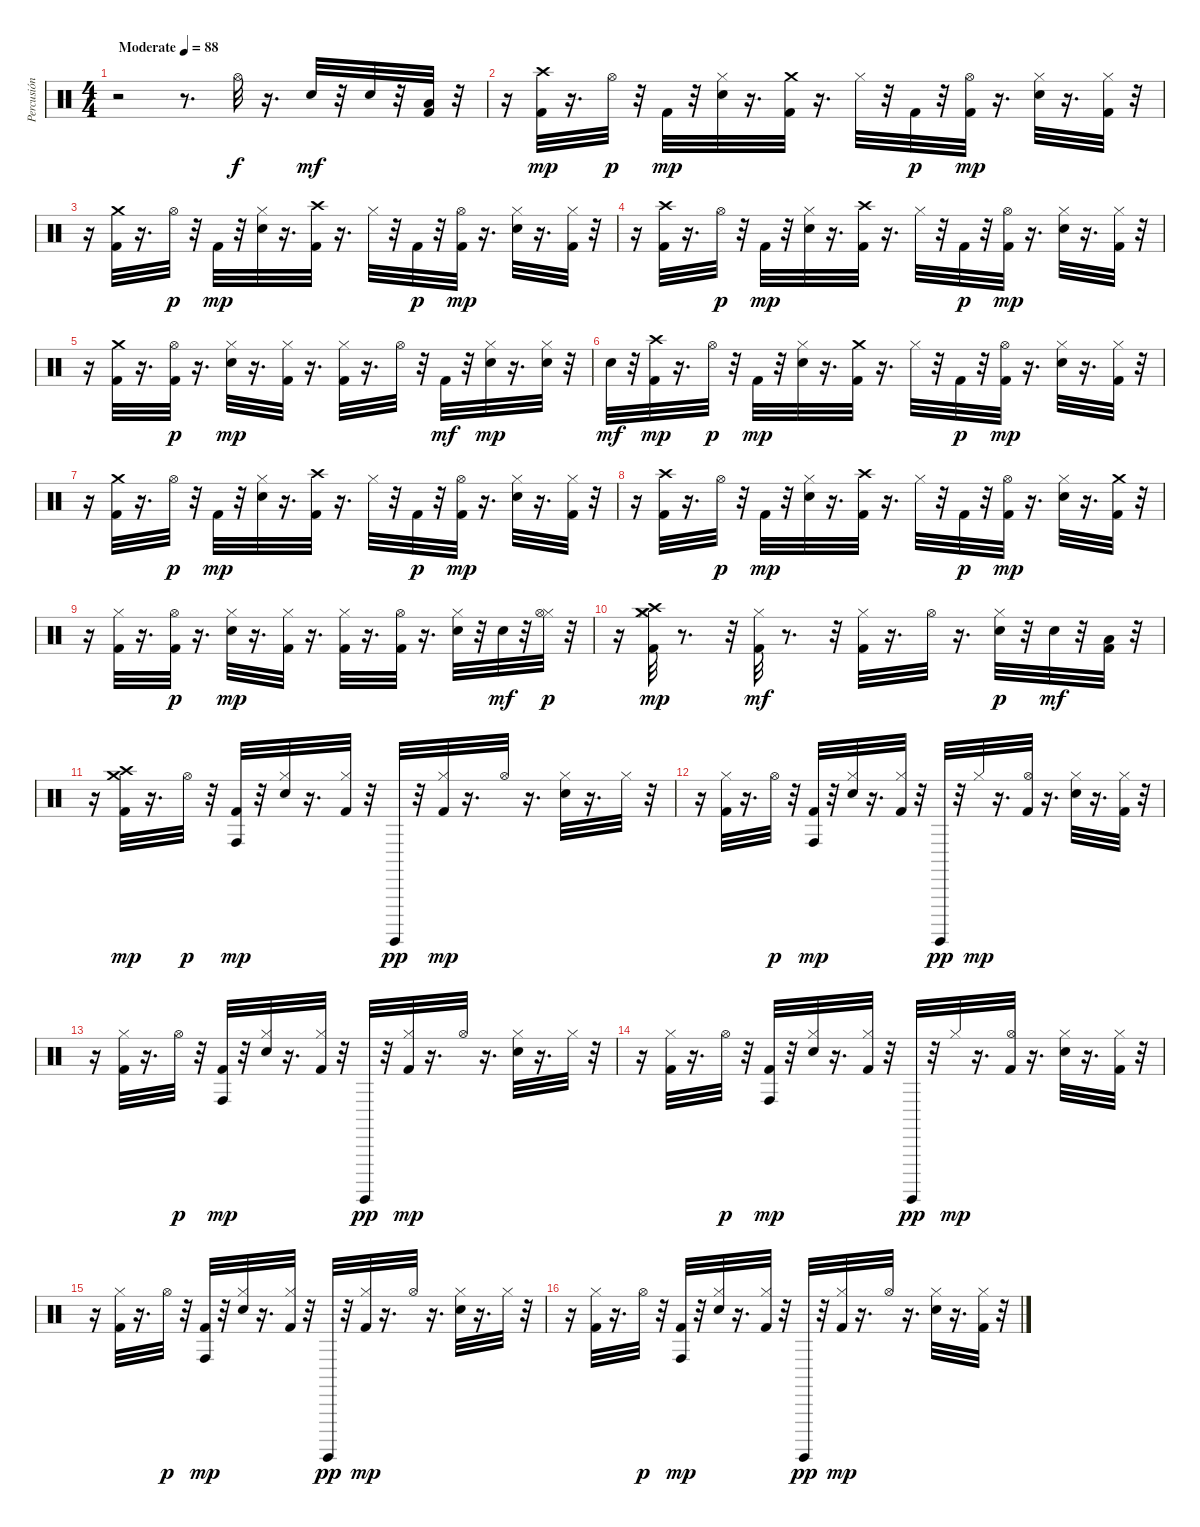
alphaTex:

\track ("Percusión" "Percusión") {instrument percussion}
\staff {score}
\articulation defaults
\ts (4 4)
\tempo (88 "Moderate")
\clef neutral
\ks c
r.2{dy f} r.8{d} "Hi-Hat (open)".32 r.16{d} "Electric Snare (hit)".32{dy mf} r.32 "Electric Snare (hit)".32 r.32 ("Low Tom (hit)" "Kick (hit) 2").32 r.32 |
r.16 ("Kick (hit) 2" "Crash high (hit)").32{dy mp} r.16{d} "Hi-Hat (open)".32{dy p} r.32 "Kick (hit) 2".32{dy mp} r.32 ("Electric Snare (hit)" "Hi-Hat (closed)").32 r.16{d} ("Kick (hit) 2" "Crash medium (hit)").32 r.16{d} "Hi-Hat (closed)".32 r.32 "Kick (hit) 2".32{dy p} r.32 ("Kick (hit) 2" "Hi-Hat (open)").32{dy mp} r.16{d} ("Electric Snare (hit)" "Hi-Hat (closed)").32 r.16{d} ("Kick (hit) 2" "Hi-Hat (closed)").32 r.32 |
r.16 ("Kick (hit) 2" "Crash medium (hit)").32 r.16{d} "Hi-Hat (open)".32{dy p} r.32 "Kick (hit) 2".32{dy mp} r.32 ("Electric Snare (hit)" "Hi-Hat (closed)").32 r.16{d} ("Kick (hit) 2" "Crash high (hit)").32 r.16{d} "Hi-Hat (closed)".32 r.32 "Kick (hit) 2".32{dy p} r.32 ("Kick (hit) 2" "Hi-Hat (open)").32{dy mp} r.16{d} ("Electric Snare (hit)" "Hi-Hat (closed)").32 r.16{d} ("Kick (hit) 2" "Hi-Hat (closed)").32 r.32 |
r.16 ("Kick (hit) 2" "Crash high (hit)").32 r.16{d} "Hi-Hat (open)".32{dy p} r.32 "Kick (hit) 2".32{dy mp} r.32 ("Electric Snare (hit)" "Hi-Hat (closed)").32 r.16{d} ("Kick (hit) 2" "Crash high (hit)").32 r.16{d} "Hi-Hat (closed)".32 r.32 "Kick (hit) 2".32{dy p} r.32 ("Kick (hit) 2" "Hi-Hat (open)").32{dy mp} r.16{d} ("Electric Snare (hit)" "Hi-Hat (closed)").32 r.16{d} ("Kick (hit) 2" "Hi-Hat (closed)").32 r.32 |
r.16 ("Kick (hit) 2" "Crash medium (hit)").32 r.16{d} ("Kick (hit) 2" "Hi-Hat (open)").32{dy p} r.16{d} ("Electric Snare (hit)" "Hi-Hat (closed)").32{dy mp} r.16{d} ("Kick (hit) 2" "Hi-Hat (closed)").32 r.16{d} ("Kick (hit) 2" "Hi-Hat (closed)").32 r.16{d} "Hi-Hat (open)".32 r.32 "Kick (hit) 2".32{dy mf} r.32 ("Electric Snare (hit)" "Hi-Hat (closed)").32{dy mp} r.16{d} ("Electric Snare (hit)" "Hi-Hat (closed)").32 r.32 |
"Electric Snare (hit)".32{dy mf} r.32 ("Kick (hit) 2" "Crash high (hit)").32{dy mp} r.16{d} "Hi-Hat (open)".32{dy p} r.32 "Kick (hit) 2".32{dy mp} r.32 ("Electric Snare (hit)" "Hi-Hat (closed)").32 r.16{d} ("Kick (hit) 2" "Crash medium (hit)").32 r.16{d} "Hi-Hat (closed)".32 r.32 "Kick (hit) 2".32{dy p} r.32 ("Kick (hit) 2" "Hi-Hat (open)").32{dy mp} r.16{d} ("Electric Snare (hit)" "Hi-Hat (closed)").32 r.16{d} ("Kick (hit) 2" "Hi-Hat (closed)").32 r.32 |
r.16 ("Kick (hit) 2" "Crash medium (hit)").32 r.16{d} "Hi-Hat (open)".32{dy p} r.32 "Kick (hit) 2".32{dy mp} r.32 ("Electric Snare (hit)" "Hi-Hat (closed)").32 r.16{d} ("Kick (hit) 2" "Crash high (hit)").32 r.16{d} "Hi-Hat (closed)".32 r.32 "Kick (hit) 2".32{dy p} r.32 ("Kick (hit) 2" "Hi-Hat (open)").32{dy mp} r.16{d} ("Electric Snare (hit)" "Hi-Hat (closed)").32 r.16{d} ("Kick (hit) 2" "Hi-Hat (closed)").32 r.32 |
r.16 ("Kick (hit) 2" "Crash high (hit)").32 r.16{d} "Hi-Hat (open)".32{dy p} r.32 "Kick (hit) 2".32{dy mp} r.32 ("Electric Snare (hit)" "Hi-Hat (closed)").32 r.16{d} ("Kick (hit) 2" "Crash high (hit)").32 r.16{d} "Hi-Hat (closed)".32 r.32 "Kick (hit) 2".32{dy p} r.32 ("Kick (hit) 2" "Hi-Hat (open)").32{dy mp} r.16{d} ("Electric Snare (hit)" "Hi-Hat (closed)").32 r.16{d} ("Kick (hit) 2" "Crash medium (hit)").32 r.32 |
r.16 ("Kick (hit) 2" "Hi-Hat (closed)").32 r.16{d} ("Kick (hit) 2" "Hi-Hat (open)").32{dy p} r.16{d} ("Electric Snare (hit)" "Hi-Hat (closed)").32{dy mp} r.16{d} ("Kick (hit) 2" "Hi-Hat (closed)").32 r.16{d} ("Kick (hit) 2" "Hi-Hat (closed)").32 r.16{d} ("Kick (hit) 2" "Hi-Hat (open)").32 r.16{d} ("Electric Snare (hit)" "Hi-Hat (closed)").32 r.32 "Electric Snare (hit)".32{dy mf} r.32 ("Hi-Hat (closed)" "Hi-Hat (open)").32{dy p} r.32 |
r.16 ("Kick (hit) 2" "Crash medium (hit)" "Crash high (hit)" "Hi-Hat (closed)").32{dy mp} r.8{d} r.32 ("Kick (hit) 2" "Hi-Hat (closed)").32{dy mf} r.8{d} r.32 ("Kick (hit) 2" "Hi-Hat (closed)").32 r.16{d} "Hi-Hat (open)".32 r.16{d} ("Electric Snare (hit)" "Hi-Hat (closed)").32{dy p} r.32 "Electric Snare (hit)".32{dy mf} r.32 ("Low Tom (hit)" "Kick (hit) 2").32 r.32 |
r.16 ("Kick (hit) 2" "Crash medium (hit)" "Crash high (hit)").32{dy mp} r.16{d} "Hi-Hat (open)".32{dy p} r.32 ("Kick (hit) 2" "Conga high (hit)").32{dy mp} r.32 ("Electric Snare (hit)" "Hi-Hat (closed)").32 r.16{d} ("Kick (hit) 2" "Hi-Hat (closed)").32 r.32 "Surdo (hit)".32{dy pp} r.32 ("Kick (hit) 2" "Hi-Hat (closed)").32{dy mp} r.16{d} "Hi-Hat (open)".32 r.16{d} ("Electric Snare (hit)" "Hi-Hat (closed)").32 r.16{d} "Hi-Hat (closed)".32 r.32 |
r.16 ("Kick (hit) 2" "Hi-Hat (closed)").32 r.16{d} "Hi-Hat (open)".32{dy p} r.32 ("Kick (hit) 2" "Conga high (hit)").32{dy mp} r.32 ("Electric Snare (hit)" "Hi-Hat (closed)").32 r.16{d} ("Kick (hit) 2" "Hi-Hat (closed)").32 r.32 "Surdo (hit)".32{dy pp} r.32 "Hi-Hat (closed)".32{dy mp} r.16{d} ("Kick (hit) 2" "Hi-Hat (open)").32 r.16{d} ("Electric Snare (hit)" "Hi-Hat (closed)").32 r.16{d} ("Kick (hit) 2" "Hi-Hat (closed)").32 r.32 |
r.16 ("Kick (hit) 2" "Hi-Hat (closed)").32 r.16{d} "Hi-Hat (open)".32{dy p} r.32 ("Kick (hit) 2" "Conga high (hit)").32{dy mp} r.32 ("Electric Snare (hit)" "Hi-Hat (closed)").32 r.16{d} ("Kick (hit) 2" "Hi-Hat (closed)").32 r.32 "Surdo (hit)".32{dy pp} r.32 ("Kick (hit) 2" "Hi-Hat (closed)").32{dy mp} r.16{d} "Hi-Hat (open)".32 r.16{d} ("Electric Snare (hit)" "Hi-Hat (closed)").32 r.16{d} "Hi-Hat (closed)".32 r.32 |
r.16 ("Kick (hit) 2" "Hi-Hat (closed)").32 r.16{d} "Hi-Hat (open)".32{dy p} r.32 ("Kick (hit) 2" "Conga high (hit)").32{dy mp} r.32 ("Electric Snare (hit)" "Hi-Hat (closed)").32 r.16{d} ("Kick (hit) 2" "Hi-Hat (closed)").32 r.32 "Surdo (hit)".32{dy pp} r.32 "Hi-Hat (closed)".32{dy mp} r.16{d} ("Kick (hit) 2" "Hi-Hat (open)").32 r.16{d} ("Electric Snare (hit)" "Hi-Hat (closed)").32 r.16{d} ("Kick (hit) 2" "Hi-Hat (closed)").32 r.32 |
r.16 ("Kick (hit) 2" "Hi-Hat (closed)").32 r.16{d} "Hi-Hat (open)".32{dy p} r.32 ("Kick (hit) 2" "Conga high (hit)").32{dy mp} r.32 ("Electric Snare (hit)" "Hi-Hat (closed)").32 r.16{d} ("Kick (hit) 2" "Hi-Hat (closed)").32 r.32 "Surdo (hit)".32{dy pp} r.32 ("Kick (hit) 2" "Hi-Hat (closed)").32{dy mp} r.16{d} "Hi-Hat (open)".32 r.16{d} ("Electric Snare (hit)" "Hi-Hat (closed)").32 r.16{d} "Hi-Hat (closed)".32 r.32 |
r.16 ("Kick (hit) 2" "Hi-Hat (closed)").32 r.16{d} "Hi-Hat (open)".32{dy p} r.32 ("Kick (hit) 2" "Conga high (hit)").32{dy mp} r.32 ("Electric Snare (hit)" "Hi-Hat (closed)").32 r.16{d} ("Kick (hit) 2" "Hi-Hat (closed)").32 r.32 "Surdo (hit)".32{dy pp} r.32 ("Kick (hit) 2" "Hi-Hat (closed)").32{dy mp} r.16{d} "Hi-Hat (open)".32 r.16{d} ("Electric Snare (hit)" "Hi-Hat (closed)").32 r.16{d} ("Kick (hit) 2" "Hi-Hat (closed)").32 r.32
